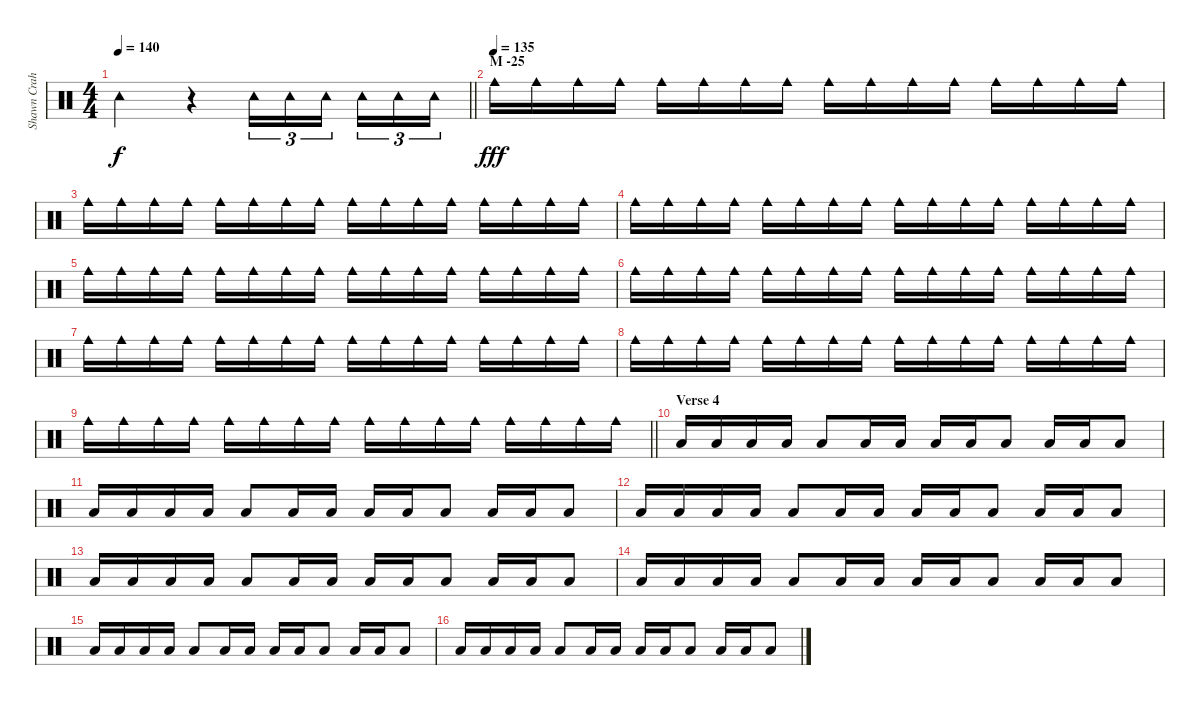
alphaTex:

\track ("Shawn Crahan" "Shawn Crah") {instrument percussion}
\staff {score}
\articulation defaults
\ts (4 4)
\tempo 140
\clef neutral
\barLineRight lightlight
\ks c "Tambourine (hit)".2{dy f}
r.4 "Tambourine (hit)".16{tu (3 2)} "Tambourine (hit)".16{tu (3 2)} "Tambourine (hit)".16{tu (3 2) beam splitsecondary} "Tambourine (hit)".16{tu (3 2)} "Tambourine (hit)".16{tu (3 2)} "Tambourine (hit)".16{tu (3 2)} |
\section ("" "M -25")
\tempo (135)
"Cowbell medium (hit)".16{dy fff} "Cowbell medium (hit)".16 "Cowbell medium (hit)".16 "Cowbell medium (hit)".16 "Cowbell medium (hit)".16 "Cowbell medium (hit)".16 "Cowbell medium (hit)".16 "Cowbell medium (hit)".16 "Cowbell medium (hit)".16 "Cowbell medium (hit)".16 "Cowbell medium (hit)".16 "Cowbell medium (hit)".16 "Cowbell medium (hit)".16 "Cowbell medium (hit)".16 "Cowbell medium (hit)".16 "Cowbell medium (hit)".16 |
"Cowbell medium (hit)".16 "Cowbell medium (hit)".16 "Cowbell medium (hit)".16 "Cowbell medium (hit)".16 "Cowbell medium (hit)".16 "Cowbell medium (hit)".16 "Cowbell medium (hit)".16 "Cowbell medium (hit)".16 "Cowbell medium (hit)".16 "Cowbell medium (hit)".16 "Cowbell medium (hit)".16 "Cowbell medium (hit)".16 "Cowbell medium (hit)".16 "Cowbell medium (hit)".16 "Cowbell medium (hit)".16 "Cowbell medium (hit)".16 |
"Cowbell medium (hit)".16 "Cowbell medium (hit)".16 "Cowbell medium (hit)".16 "Cowbell medium (hit)".16 "Cowbell medium (hit)".16 "Cowbell medium (hit)".16 "Cowbell medium (hit)".16 "Cowbell medium (hit)".16 "Cowbell medium (hit)".16 "Cowbell medium (hit)".16 "Cowbell medium (hit)".16 "Cowbell medium (hit)".16 "Cowbell medium (hit)".16 "Cowbell medium (hit)".16 "Cowbell medium (hit)".16 "Cowbell medium (hit)".16 |
"Cowbell medium (hit)".16 "Cowbell medium (hit)".16 "Cowbell medium (hit)".16 "Cowbell medium (hit)".16 "Cowbell medium (hit)".16 "Cowbell medium (hit)".16 "Cowbell medium (hit)".16 "Cowbell medium (hit)".16 "Cowbell medium (hit)".16 "Cowbell medium (hit)".16 "Cowbell medium (hit)".16 "Cowbell medium (hit)".16 "Cowbell medium (hit)".16 "Cowbell medium (hit)".16 "Cowbell medium (hit)".16 "Cowbell medium (hit)".16 |
"Cowbell medium (hit)".16 "Cowbell medium (hit)".16 "Cowbell medium (hit)".16 "Cowbell medium (hit)".16 "Cowbell medium (hit)".16 "Cowbell medium (hit)".16 "Cowbell medium (hit)".16 "Cowbell medium (hit)".16 "Cowbell medium (hit)".16 "Cowbell medium (hit)".16 "Cowbell medium (hit)".16 "Cowbell medium (hit)".16 "Cowbell medium (hit)".16 "Cowbell medium (hit)".16 "Cowbell medium (hit)".16 "Cowbell medium (hit)".16 |
"Cowbell medium (hit)".16 "Cowbell medium (hit)".16 "Cowbell medium (hit)".16 "Cowbell medium (hit)".16 "Cowbell medium (hit)".16 "Cowbell medium (hit)".16 "Cowbell medium (hit)".16 "Cowbell medium (hit)".16 "Cowbell medium (hit)".16 "Cowbell medium (hit)".16 "Cowbell medium (hit)".16 "Cowbell medium (hit)".16 "Cowbell medium (hit)".16 "Cowbell medium (hit)".16 "Cowbell medium (hit)".16 "Cowbell medium (hit)".16 |
"Cowbell medium (hit)".16 "Cowbell medium (hit)".16 "Cowbell medium (hit)".16 "Cowbell medium (hit)".16 "Cowbell medium (hit)".16 "Cowbell medium (hit)".16 "Cowbell medium (hit)".16 "Cowbell medium (hit)".16 "Cowbell medium (hit)".16 "Cowbell medium (hit)".16 "Cowbell medium (hit)".16 "Cowbell medium (hit)".16 "Cowbell medium (hit)".16 "Cowbell medium (hit)".16 "Cowbell medium (hit)".16 "Cowbell medium (hit)".16 |
\barLineRight lightlight "Cowbell medium (hit)".16 "Cowbell medium (hit)".16 "Cowbell medium (hit)".16 "Cowbell medium (hit)".16 "Cowbell medium (hit)".16 "Cowbell medium (hit)".16 "Cowbell medium (hit)".16 "Cowbell medium (hit)".16 "Cowbell medium (hit)".16 "Cowbell medium (hit)".16 "Cowbell medium (hit)".16 "Cowbell medium (hit)".16 "Cowbell medium (hit)".16 "Cowbell medium (hit)".16 "Cowbell medium (hit)".16 "Cowbell medium (hit)".16
|
\section ("" "Verse 4")
"Low Floor Tom (hit)".16 "Low Floor Tom (hit)".16 "Low Floor Tom (hit)".16 "Low Floor Tom (hit)".16 "Low Floor Tom (hit)".8 "Low Floor Tom (hit)".16 "Low Floor Tom (hit)".16 "Low Floor Tom (hit)".16 "Low Floor Tom (hit)".16 "Low Floor Tom (hit)".8 "Low Floor Tom (hit)".16 "Low Floor Tom (hit)".16 "Low Floor Tom (hit)".8 |
"Low Floor Tom (hit)".16 "Low Floor Tom (hit)".16 "Low Floor Tom (hit)".16 "Low Floor Tom (hit)".16 "Low Floor Tom (hit)".8 "Low Floor Tom (hit)".16 "Low Floor Tom (hit)".16 "Low Floor Tom (hit)".16 "Low Floor Tom (hit)".16 "Low Floor Tom (hit)".8 "Low Floor Tom (hit)".16 "Low Floor Tom (hit)".16 "Low Floor Tom (hit)".8 |
"Low Floor Tom (hit)".16 "Low Floor Tom (hit)".16 "Low Floor Tom (hit)".16 "Low Floor Tom (hit)".16 "Low Floor Tom (hit)".8 "Low Floor Tom (hit)".16 "Low Floor Tom (hit)".16 "Low Floor Tom (hit)".16 "Low Floor Tom (hit)".16 "Low Floor Tom (hit)".8 "Low Floor Tom (hit)".16 "Low Floor Tom (hit)".16 "Low Floor Tom (hit)".8 |
"Low Floor Tom (hit)".16 "Low Floor Tom (hit)".16 "Low Floor Tom (hit)".16 "Low Floor Tom (hit)".16 "Low Floor Tom (hit)".8 "Low Floor Tom (hit)".16 "Low Floor Tom (hit)".16 "Low Floor Tom (hit)".16 "Low Floor Tom (hit)".16 "Low Floor Tom (hit)".8 "Low Floor Tom (hit)".16 "Low Floor Tom (hit)".16 "Low Floor Tom (hit)".8 |
"Low Floor Tom (hit)".16 "Low Floor Tom (hit)".16 "Low Floor Tom (hit)".16 "Low Floor Tom (hit)".16 "Low Floor Tom (hit)".8 "Low Floor Tom (hit)".16 "Low Floor Tom (hit)".16 "Low Floor Tom (hit)".16 "Low Floor Tom (hit)".16 "Low Floor Tom (hit)".8 "Low Floor Tom (hit)".16 "Low Floor Tom (hit)".16 "Low Floor Tom (hit)".8 |
"Low Floor Tom (hit)".16 "Low Floor Tom (hit)".16 "Low Floor Tom (hit)".16 "Low Floor Tom (hit)".16 "Low Floor Tom (hit)".8 "Low Floor Tom (hit)".16 "Low Floor Tom (hit)".16 "Low Floor Tom (hit)".16 "Low Floor Tom (hit)".16 "Low Floor Tom (hit)".8 "Low Floor Tom (hit)".16 "Low Floor Tom (hit)".16 "Low Floor Tom (hit)".8 |
"Low Floor Tom (hit)".16 "Low Floor Tom (hit)".16 "Low Floor Tom (hit)".16 "Low Floor Tom (hit)".16 "Low Floor Tom (hit)".8 "Low Floor Tom (hit)".16 "Low Floor Tom (hit)".16 "Low Floor Tom (hit)".16 "Low Floor Tom (hit)".16 "Low Floor Tom (hit)".8 "Low Floor Tom (hit)".16 "Low Floor Tom (hit)".16 "Low Floor Tom (hit)".8
